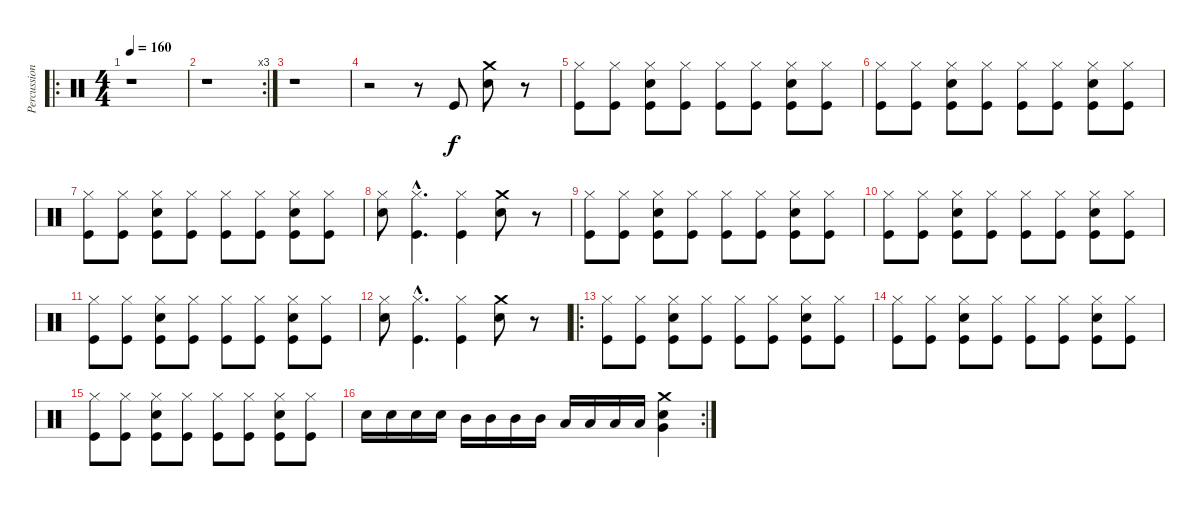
\track ("Percussion" "Percussion") {instrument percussion}
\staff {score}
\articulation defaults
\ro
\ts (4 4)
\tempo 160
\clef neutral
\ks c
r.1{dy f} |
\rc 3
r.1 |
r.1 |
r.2 r.8 "Kick (hit)".8 ("Crash medium (hit)" "Snare (hit) 2").8 r.8 |
("Hi-Hat (closed)" "Kick (hit)").8 ("Hi-Hat (closed)" "Kick (hit)").8 ("Hi-Hat (closed)" "Snare (hit) 2" "Kick (hit)").8 ("Hi-Hat (closed)" "Kick (hit)").8 ("Hi-Hat (closed)" "Kick (hit)").8 ("Hi-Hat (closed)" "Kick (hit)").8 ("Hi-Hat (closed)" "Snare (hit) 2" "Kick (hit)").8 ("Hi-Hat (closed)" "Kick (hit)").8 |
("Hi-Hat (closed)" "Kick (hit)").8 ("Hi-Hat (closed)" "Kick (hit)").8 ("Hi-Hat (closed)" "Snare (hit) 2" "Kick (hit)").8 ("Hi-Hat (closed)" "Kick (hit)").8 ("Hi-Hat (closed)" "Kick (hit)").8 ("Hi-Hat (closed)" "Kick (hit)").8 ("Hi-Hat (closed)" "Snare (hit) 2" "Kick (hit)").8 ("Hi-Hat (closed)" "Kick (hit)").8 |
("Hi-Hat (closed)" "Kick (hit)").8 ("Hi-Hat (closed)" "Kick (hit)").8 ("Hi-Hat (closed)" "Snare (hit) 2" "Kick (hit)").8 ("Hi-Hat (closed)" "Kick (hit)").8 ("Hi-Hat (closed)" "Kick (hit)").8 ("Hi-Hat (closed)" "Kick (hit)").8 ("Hi-Hat (closed)" "Snare (hit) 2" "Kick (hit)").8 ("Hi-Hat (closed)" "Kick (hit)").8 |
("Hi-Hat (closed)" "Snare (hit) 2").8 ("Hi-Hat (closed)"{hac} "Kick (hit)"{hac}).4{d} ("Hi-Hat (closed)" "Kick (hit)").4 ("Crash medium (hit)" "Snare (hit) 2").8 r.8 |
("Hi-Hat (closed)" "Kick (hit)").8 ("Hi-Hat (closed)" "Kick (hit)").8 ("Hi-Hat (closed)" "Snare (hit) 2" "Kick (hit)").8 ("Hi-Hat (closed)" "Kick (hit)").8 ("Hi-Hat (closed)" "Kick (hit)").8 ("Hi-Hat (closed)" "Kick (hit)").8 ("Hi-Hat (closed)" "Snare (hit) 2" "Kick (hit)").8 ("Hi-Hat (closed)" "Kick (hit)").8 |
("Hi-Hat (closed)" "Kick (hit)").8 ("Hi-Hat (closed)" "Kick (hit)").8 ("Hi-Hat (closed)" "Snare (hit) 2" "Kick (hit)").8 ("Hi-Hat (closed)" "Kick (hit)").8 ("Hi-Hat (closed)" "Kick (hit)").8 ("Hi-Hat (closed)" "Kick (hit)").8 ("Hi-Hat (closed)" "Snare (hit) 2" "Kick (hit)").8 ("Hi-Hat (closed)" "Kick (hit)").8 |
("Hi-Hat (closed)" "Kick (hit)").8 ("Hi-Hat (closed)" "Kick (hit)").8 ("Hi-Hat (closed)" "Snare (hit) 2" "Kick (hit)").8 ("Hi-Hat (closed)" "Kick (hit)").8 ("Hi-Hat (closed)" "Kick (hit)").8 ("Hi-Hat (closed)" "Kick (hit)").8 ("Hi-Hat (closed)" "Snare (hit) 2" "Kick (hit)").8 ("Hi-Hat (closed)" "Kick (hit)").8 |
("Hi-Hat (closed)" "Snare (hit) 2").8 ("Hi-Hat (closed)"{hac} "Kick (hit)"{hac}).4{d} ("Hi-Hat (closed)" "Kick (hit)").4 ("Crash medium (hit)" "Snare (hit) 2").8 r.8 |
\ro
("Hi-Hat (closed)" "Kick (hit)").8 ("Hi-Hat (closed)" "Kick (hit)").8 ("Hi-Hat (closed)" "Snare (hit) 2" "Kick (hit)").8 ("Hi-Hat (closed)" "Kick (hit)").8 ("Hi-Hat (closed)" "Kick (hit)").8 ("Hi-Hat (closed)" "Kick (hit)").8 ("Hi-Hat (closed)" "Snare (hit) 2" "Kick (hit)").8 ("Hi-Hat (closed)" "Kick (hit)").8 |
("Hi-Hat (closed)" "Kick (hit)").8 ("Hi-Hat (closed)" "Kick (hit)").8 ("Hi-Hat (closed)" "Snare (hit) 2" "Kick (hit)").8 ("Hi-Hat (closed)" "Kick (hit)").8 ("Hi-Hat (closed)" "Kick (hit)").8 ("Hi-Hat (closed)" "Kick (hit)").8 ("Hi-Hat (closed)" "Snare (hit) 2" "Kick (hit)").8 ("Hi-Hat (closed)" "Kick (hit)").8 |
("Hi-Hat (closed)" "Kick (hit)").8 ("Hi-Hat (closed)" "Kick (hit)").8 ("Hi-Hat (closed)" "Snare (hit) 2" "Kick (hit)").8 ("Hi-Hat (closed)" "Kick (hit)").8 ("Hi-Hat (closed)" "Kick (hit)").8 ("Hi-Hat (closed)" "Kick (hit)").8 ("Hi-Hat (closed)" "Snare (hit) 2" "Kick (hit)").8 ("Hi-Hat (closed)" "Kick (hit)").8 |
\rc 2 "Snare (hit) 2".16 "Snare (hit) 2".16 "Snare (hit) 2".16 "Snare (hit) 2".16 "Mid Tom (hit)".16 "Mid Tom (hit)".16 "Mid Tom (hit)".16 "Mid Tom (hit)".16 "Low Tom (hit)".16 "Low Tom (hit)".16 "Low Tom (hit)".16 "Low Tom (hit)".16
("Very Low Tom (hit)" "Snare (hit) 2" "Crash medium (hit)").4
